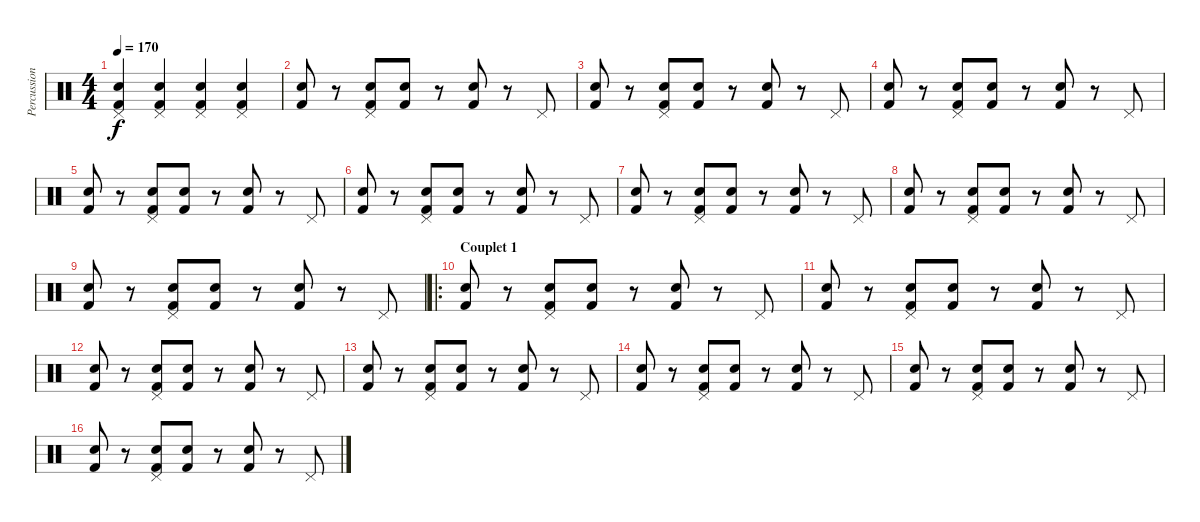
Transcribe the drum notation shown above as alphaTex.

\track ("Percussions" "Percussion") {instrument percussion}
\staff {score}
\articulation defaults
\ts (4 4)
\tempo 170
\clef neutral
\ks c
("Snare (hit) 2" "Pedal Hi-Hat (hit)" "Kick (hit) 2").4{dy f} ("Snare (hit) 2" "Pedal Hi-Hat (hit)" "Kick (hit) 2").4 ("Snare (hit) 2" "Pedal Hi-Hat (hit)" "Kick (hit) 2").4 ("Snare (hit) 2" "Pedal Hi-Hat (hit)" "Kick (hit) 2").4 |
("Snare (hit) 2" "Kick (hit) 2").8 r.8 ("Pedal Hi-Hat (hit)" "Snare (hit) 2" "Kick (hit) 2").8 ("Snare (hit) 2" "Kick (hit) 2").8 r.8 ("Snare (hit) 2" "Kick (hit) 2").8 r.8 "Pedal Hi-Hat (hit)".8 |
("Snare (hit) 2" "Kick (hit) 2").8 r.8 ("Pedal Hi-Hat (hit)" "Kick (hit) 2" "Snare (hit) 2").8 ("Kick (hit) 2" "Snare (hit) 2").8 r.8 ("Kick (hit) 2" "Snare (hit) 2").8 r.8 "Pedal Hi-Hat (hit)".8 |
("Snare (hit) 2" "Kick (hit) 2").8 r.8 ("Pedal Hi-Hat (hit)" "Kick (hit) 2" "Snare (hit) 2").8 ("Kick (hit) 2" "Snare (hit) 2").8 r.8 ("Kick (hit) 2" "Snare (hit) 2").8 r.8 "Pedal Hi-Hat (hit)".8 |
("Snare (hit) 2" "Kick (hit) 2").8 r.8 ("Pedal Hi-Hat (hit)" "Kick (hit) 2" "Snare (hit) 2").8 ("Kick (hit) 2" "Snare (hit) 2").8 r.8 ("Kick (hit) 2" "Snare (hit) 2").8 r.8 "Pedal Hi-Hat (hit)".8 |
("Snare (hit) 2" "Kick (hit) 2").8 r.8 ("Pedal Hi-Hat (hit)" "Kick (hit) 2" "Snare (hit) 2").8 ("Kick (hit) 2" "Snare (hit) 2").8 r.8 ("Kick (hit) 2" "Snare (hit) 2").8 r.8 "Pedal Hi-Hat (hit)".8 |
("Snare (hit) 2" "Kick (hit) 2").8 r.8 ("Pedal Hi-Hat (hit)" "Kick (hit) 2" "Snare (hit) 2").8 ("Kick (hit) 2" "Snare (hit) 2").8 r.8 ("Kick (hit) 2" "Snare (hit) 2").8 r.8 "Pedal Hi-Hat (hit)".8 |
("Snare (hit) 2" "Kick (hit) 2").8 r.8 ("Pedal Hi-Hat (hit)" "Kick (hit) 2" "Snare (hit) 2").8 ("Kick (hit) 2" "Snare (hit) 2").8 r.8 ("Kick (hit) 2" "Snare (hit) 2").8 r.8 "Pedal Hi-Hat (hit)".8 |
("Snare (hit) 2" "Kick (hit) 2").8 r.8 ("Pedal Hi-Hat (hit)" "Kick (hit) 2" "Snare (hit) 2").8 ("Kick (hit) 2" "Snare (hit) 2").8 r.8 ("Kick (hit) 2" "Snare (hit) 2").8 r.8 "Pedal Hi-Hat (hit)".8 |
\ro
\section ("" "Couplet 1")
("Snare (hit) 2" "Kick (hit) 2").8 r.8 ("Pedal Hi-Hat (hit)" "Kick (hit) 2" "Snare (hit) 2").8 ("Kick (hit) 2" "Snare (hit) 2").8 r.8 ("Kick (hit) 2" "Snare (hit) 2").8 r.8 "Pedal Hi-Hat (hit)".8 |
("Snare (hit) 2" "Kick (hit) 2").8 r.8 ("Pedal Hi-Hat (hit)" "Kick (hit) 2" "Snare (hit) 2").8 ("Kick (hit) 2" "Snare (hit) 2").8 r.8 ("Kick (hit) 2" "Snare (hit) 2").8 r.8 "Pedal Hi-Hat (hit)".8 |
("Snare (hit) 2" "Kick (hit) 2").8 r.8 ("Pedal Hi-Hat (hit)" "Kick (hit) 2" "Snare (hit) 2").8 ("Kick (hit) 2" "Snare (hit) 2").8 r.8 ("Kick (hit) 2" "Snare (hit) 2").8 r.8 "Pedal Hi-Hat (hit)".8 |
("Snare (hit) 2" "Kick (hit) 2").8 r.8 ("Pedal Hi-Hat (hit)" "Kick (hit) 2" "Snare (hit) 2").8 ("Kick (hit) 2" "Snare (hit) 2").8 r.8 ("Kick (hit) 2" "Snare (hit) 2").8 r.8 "Pedal Hi-Hat (hit)".8 |
("Snare (hit) 2" "Kick (hit) 2").8 r.8 ("Pedal Hi-Hat (hit)" "Kick (hit) 2" "Snare (hit) 2").8 ("Kick (hit) 2" "Snare (hit) 2").8 r.8 ("Kick (hit) 2" "Snare (hit) 2").8 r.8 "Pedal Hi-Hat (hit)".8 |
("Snare (hit) 2" "Kick (hit) 2").8 r.8 ("Pedal Hi-Hat (hit)" "Kick (hit) 2" "Snare (hit) 2").8 ("Kick (hit) 2" "Snare (hit) 2").8 r.8 ("Kick (hit) 2" "Snare (hit) 2").8 r.8 "Pedal Hi-Hat (hit)".8 |
("Snare (hit) 2" "Kick (hit) 2").8 r.8 ("Pedal Hi-Hat (hit)" "Kick (hit) 2" "Snare (hit) 2").8 ("Kick (hit) 2" "Snare (hit) 2").8 r.8 ("Kick (hit) 2" "Snare (hit) 2").8 r.8 "Pedal Hi-Hat (hit)".8
